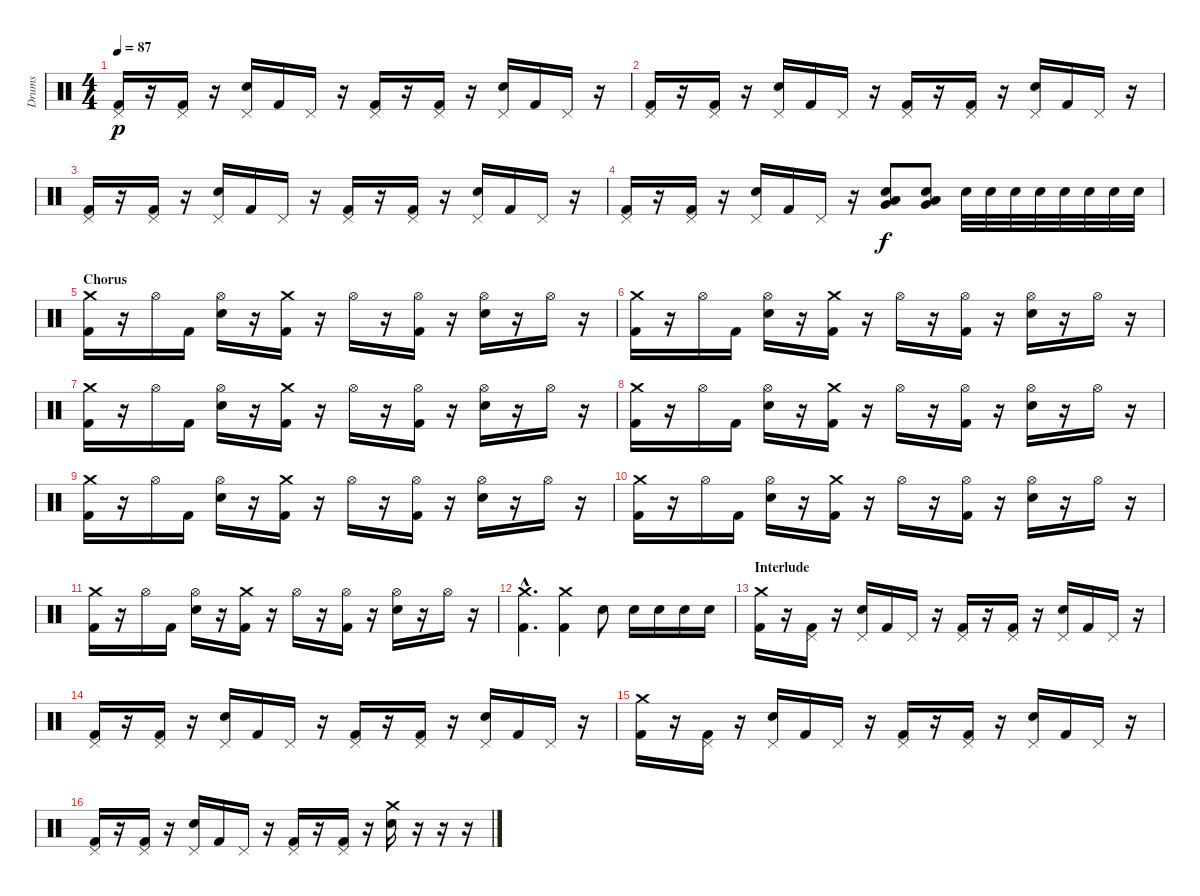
\track ("Drums" "Drums") {instrument percussion}
\staff {score}
\articulation defaults
\ts (4 4)
\tempo 87
\clef neutral
\ks c
("Pedal Hi-Hat (hit)" "Kick (hit) 2").16{dy p} r.16 ("Pedal Hi-Hat (hit)" "Kick (hit) 2").16 r.16 ("Pedal Hi-Hat (hit)" "Electric Snare (hit)").16 "Kick (hit) 2".16 "Pedal Hi-Hat (hit)".16 r.16 ("Pedal Hi-Hat (hit)" "Kick (hit) 2").16 r.16 ("Pedal Hi-Hat (hit)" "Kick (hit) 2").16 r.16 ("Pedal Hi-Hat (hit)" "Electric Snare (hit)").16 "Kick (hit) 2".16 "Pedal Hi-Hat (hit)".16 r.16 |
("Pedal Hi-Hat (hit)" "Kick (hit) 2").16 r.16 ("Pedal Hi-Hat (hit)" "Kick (hit) 2").16 r.16 ("Pedal Hi-Hat (hit)" "Electric Snare (hit)").16 "Kick (hit) 2".16 "Pedal Hi-Hat (hit)".16 r.16 ("Pedal Hi-Hat (hit)" "Kick (hit) 2").16 r.16 ("Pedal Hi-Hat (hit)" "Kick (hit) 2").16 r.16 ("Pedal Hi-Hat (hit)" "Electric Snare (hit)").16 "Kick (hit) 2".16 "Pedal Hi-Hat (hit)".16 r.16 |
("Pedal Hi-Hat (hit)" "Kick (hit) 2").16 r.16 ("Pedal Hi-Hat (hit)" "Kick (hit) 2").16 r.16 ("Pedal Hi-Hat (hit)" "Electric Snare (hit)").16 "Kick (hit) 2".16 "Pedal Hi-Hat (hit)".16 r.16 ("Pedal Hi-Hat (hit)" "Kick (hit) 2").16 r.16 ("Pedal Hi-Hat (hit)" "Kick (hit) 2").16 r.16 ("Pedal Hi-Hat (hit)" "Electric Snare (hit)").16 "Kick (hit) 2".16 "Pedal Hi-Hat (hit)".16 r.16 |
("Pedal Hi-Hat (hit)" "Kick (hit) 2").16 r.16 ("Pedal Hi-Hat (hit)" "Kick (hit) 2").16 r.16 ("Pedal Hi-Hat (hit)" "Electric Snare (hit)").16 "Kick (hit) 2".16 "Pedal Hi-Hat (hit)".16 r.16 ("Low Tom (hit)" "Very Low Tom (hit)" "Electric Snare (hit)").8{dy f} ("Low Tom (hit)" "Very Low Tom (hit)" "Electric Snare (hit)").8 "Electric Snare (hit)".32 "Electric Snare (hit)".32 "Electric Snare (hit)".32 "Electric Snare (hit)".32 "Electric Snare (hit)".32 "Electric Snare (hit)".32 "Electric Snare (hit)".32 "Electric Snare (hit)".32 |
\section ("" "Chorus")
("Crash medium (hit)" "Kick (hit) 2").16 r.16 "Hi-Hat (open)".16 "Kick (hit) 2".16 ("Hi-Hat (open)" "Electric Snare (hit)").16 r.16 ("Crash medium (hit)" "Kick (hit) 2").16 r.16 "Hi-Hat (open)".16 r.16 ("Hi-Hat (open)" "Kick (hit) 2").16 r.16 ("Hi-Hat (open)" "Electric Snare (hit)").16 r.16 "Hi-Hat (open)".16 r.16 |
("Crash medium (hit)" "Kick (hit) 2").16 r.16 "Hi-Hat (open)".16 "Kick (hit) 2".16 ("Hi-Hat (open)" "Electric Snare (hit)").16 r.16 ("Crash medium (hit)" "Kick (hit) 2").16 r.16 "Hi-Hat (open)".16 r.16 ("Hi-Hat (open)" "Kick (hit) 2").16 r.16 ("Hi-Hat (open)" "Electric Snare (hit)").16 r.16 "Hi-Hat (open)".16 r.16 |
("Crash medium (hit)" "Kick (hit) 2").16 r.16 "Hi-Hat (open)".16 "Kick (hit) 2".16 ("Hi-Hat (open)" "Electric Snare (hit)").16 r.16 ("Crash medium (hit)" "Kick (hit) 2").16 r.16 "Hi-Hat (open)".16 r.16 ("Hi-Hat (open)" "Kick (hit) 2").16 r.16 ("Hi-Hat (open)" "Electric Snare (hit)").16 r.16 "Hi-Hat (open)".16 r.16 |
("Crash medium (hit)" "Kick (hit) 2").16 r.16 "Hi-Hat (open)".16 "Kick (hit) 2".16 ("Hi-Hat (open)" "Electric Snare (hit)").16 r.16 ("Crash medium (hit)" "Kick (hit) 2").16 r.16 "Hi-Hat (open)".16 r.16 ("Hi-Hat (open)" "Kick (hit) 2").16 r.16 ("Hi-Hat (open)" "Electric Snare (hit)").16 r.16 "Hi-Hat (open)".16 r.16 |
("Crash medium (hit)" "Kick (hit) 2").16 r.16 "Hi-Hat (open)".16 "Kick (hit) 2".16 ("Hi-Hat (open)" "Electric Snare (hit)").16 r.16 ("Crash medium (hit)" "Kick (hit) 2").16 r.16 "Hi-Hat (open)".16 r.16 ("Hi-Hat (open)" "Kick (hit) 2").16 r.16 ("Hi-Hat (open)" "Electric Snare (hit)").16 r.16 "Hi-Hat (open)".16 r.16 |
("Crash medium (hit)" "Kick (hit) 2").16 r.16 "Hi-Hat (open)".16 "Kick (hit) 2".16 ("Hi-Hat (open)" "Electric Snare (hit)").16 r.16 ("Crash medium (hit)" "Kick (hit) 2").16 r.16 "Hi-Hat (open)".16 r.16 ("Hi-Hat (open)" "Kick (hit) 2").16 r.16 ("Hi-Hat (open)" "Electric Snare (hit)").16 r.16 "Hi-Hat (open)".16 r.16 |
("Crash medium (hit)" "Kick (hit) 2").16 r.16 "Hi-Hat (open)".16 "Kick (hit) 2".16 ("Hi-Hat (open)" "Electric Snare (hit)").16 r.16 ("Crash medium (hit)" "Kick (hit) 2").16 r.16 "Hi-Hat (open)".16 r.16 ("Hi-Hat (open)" "Kick (hit) 2").16 r.16 ("Hi-Hat (open)" "Electric Snare (hit)").16 r.16 "Hi-Hat (open)".16 r.16 |
("Kick (hit) 2"{hac} "Crash medium (hit)"{hac}).4{d} ("Kick (hit) 2" "Crash medium (hit)").4 "Electric Snare (hit)".8 "Electric Snare (hit)".16 "Electric Snare (hit)".16 "Electric Snare (hit)".16 "Electric Snare (hit)".16 |
\section ("" "Interlude")
("Crash medium (hit)" "Kick (hit) 2").16 r.16 ("Pedal Hi-Hat (hit)" "Kick (hit) 2").16 r.16 ("Pedal Hi-Hat (hit)" "Electric Snare (hit)").16 "Kick (hit) 2".16 "Pedal Hi-Hat (hit)".16 r.16 ("Pedal Hi-Hat (hit)" "Kick (hit) 2").16 r.16 ("Pedal Hi-Hat (hit)" "Kick (hit) 2").16 r.16 ("Pedal Hi-Hat (hit)" "Electric Snare (hit)").16 "Kick (hit) 2".16 "Pedal Hi-Hat (hit)".16 r.16 |
("Pedal Hi-Hat (hit)" "Kick (hit) 2").16 r.16 ("Pedal Hi-Hat (hit)" "Kick (hit) 2").16 r.16 ("Pedal Hi-Hat (hit)" "Electric Snare (hit)").16 "Kick (hit) 2".16 "Pedal Hi-Hat (hit)".16 r.16 ("Pedal Hi-Hat (hit)" "Kick (hit) 2").16 r.16 ("Pedal Hi-Hat (hit)" "Kick (hit) 2").16 r.16 ("Pedal Hi-Hat (hit)" "Electric Snare (hit)").16 "Kick (hit) 2".16 "Pedal Hi-Hat (hit)".16 r.16 |
("Crash medium (hit)" "Kick (hit) 2").16 r.16 ("Pedal Hi-Hat (hit)" "Kick (hit) 2").16 r.16 ("Pedal Hi-Hat (hit)" "Electric Snare (hit)").16 "Kick (hit) 2".16 "Pedal Hi-Hat (hit)".16 r.16 ("Pedal Hi-Hat (hit)" "Kick (hit) 2").16 r.16 ("Pedal Hi-Hat (hit)" "Kick (hit) 2").16 r.16 ("Pedal Hi-Hat (hit)" "Electric Snare (hit)").16 "Kick (hit) 2".16 "Pedal Hi-Hat (hit)".16 r.16 |
("Pedal Hi-Hat (hit)" "Kick (hit) 2").16 r.16 ("Pedal Hi-Hat (hit)" "Kick (hit) 2").16 r.16 ("Pedal Hi-Hat (hit)" "Electric Snare (hit)").16 "Kick (hit) 2".16 "Pedal Hi-Hat (hit)".16 r.16 ("Pedal Hi-Hat (hit)" "Kick (hit) 2").16 r.16 ("Pedal Hi-Hat (hit)" "Kick (hit) 2").16 r.16 ("Crash medium (hit)" "Electric Snare (hit)").16 r.16 r.16 r.16
